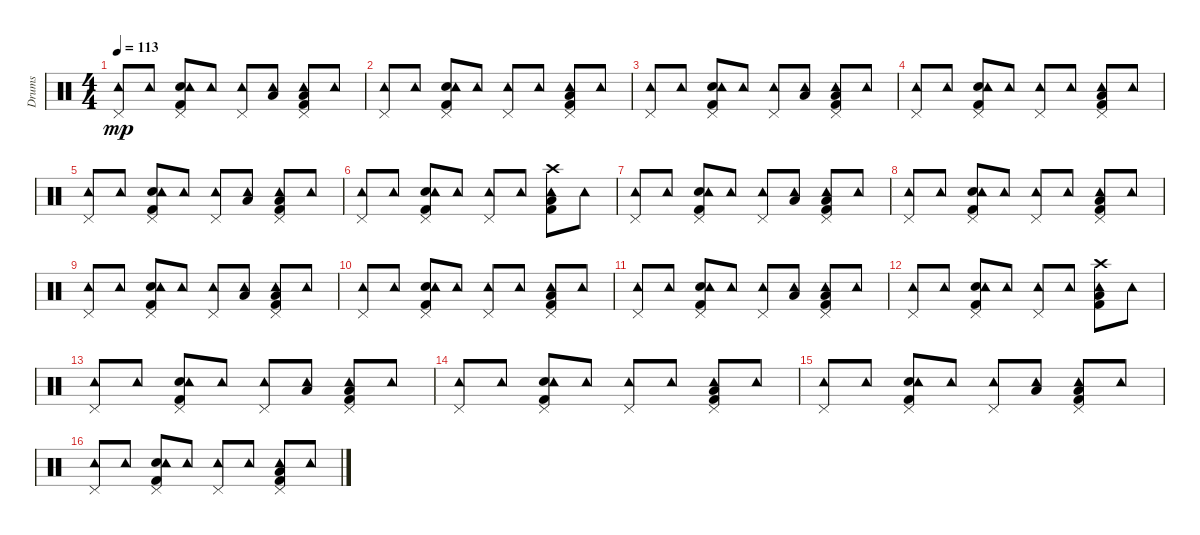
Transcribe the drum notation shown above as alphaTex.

\track ("Drums" "Drums") {instrument percussion}
\staff {score}
\articulation defaults
\ts (4 4)
\tempo 113
\clef neutral
\ks c
("Pedal Hi-Hat (hit)" "Tambourine (hit)").8{dy mp} "Tambourine (hit)".8 ("Pedal Hi-Hat (hit)" "Kick (hit) 2" "Electric Snare (hit)" "Tambourine (hit)").8 "Tambourine (hit)".8 ("Pedal Hi-Hat (hit)" "Tambourine (hit)").8 ("Low Floor Tom (hit)" "Tambourine (hit)").8 ("Pedal Hi-Hat (hit)" "Kick (hit) 2" "Low Floor Tom (hit)" "Tambourine (hit)").8 "Tambourine (hit)".8 |
("Pedal Hi-Hat (hit)" "Tambourine (hit)").8 "Tambourine (hit)".8 ("Pedal Hi-Hat (hit)" "Kick (hit) 2" "Electric Snare (hit)" "Tambourine (hit)").8 "Tambourine (hit)".8 ("Pedal Hi-Hat (hit)" "Tambourine (hit)").8 "Tambourine (hit)".8 ("Pedal Hi-Hat (hit)" "Kick (hit) 2" "Low Floor Tom (hit)" "Tambourine (hit)").8 "Tambourine (hit)".8 |
("Pedal Hi-Hat (hit)" "Tambourine (hit)").8 "Tambourine (hit)".8 ("Pedal Hi-Hat (hit)" "Kick (hit) 2" "Electric Snare (hit)" "Tambourine (hit)").8 "Tambourine (hit)".8 ("Pedal Hi-Hat (hit)" "Tambourine (hit)").8 ("Low Floor Tom (hit)" "Tambourine (hit)").8 ("Pedal Hi-Hat (hit)" "Kick (hit) 2" "Low Floor Tom (hit)" "Tambourine (hit)").8 "Tambourine (hit)".8 |
("Pedal Hi-Hat (hit)" "Tambourine (hit)").8 "Tambourine (hit)".8 ("Pedal Hi-Hat (hit)" "Kick (hit) 2" "Electric Snare (hit)" "Tambourine (hit)").8 "Tambourine (hit)".8 ("Pedal Hi-Hat (hit)" "Tambourine (hit)").8 "Tambourine (hit)".8 ("Pedal Hi-Hat (hit)" "Kick (hit) 2" "Low Floor Tom (hit)" "Tambourine (hit)").8 "Tambourine (hit)".8 |
("Pedal Hi-Hat (hit)" "Tambourine (hit)").8 "Tambourine (hit)".8 ("Pedal Hi-Hat (hit)" "Kick (hit) 2" "Electric Snare (hit)" "Tambourine (hit)").8 "Tambourine (hit)".8 ("Pedal Hi-Hat (hit)" "Tambourine (hit)").8 ("Low Floor Tom (hit)" "Tambourine (hit)").8 ("Pedal Hi-Hat (hit)" "Kick (hit) 2" "Low Floor Tom (hit)" "Tambourine (hit)").8 "Tambourine (hit)".8 |
("Pedal Hi-Hat (hit)" "Tambourine (hit)").8 "Tambourine (hit)".8 ("Pedal Hi-Hat (hit)" "Kick (hit) 2" "Electric Snare (hit)" "Tambourine (hit)").8 "Tambourine (hit)".8 ("Pedal Hi-Hat (hit)" "Tambourine (hit)").8 "Tambourine (hit)".8 ("Crash high (hit)" "Kick (hit) 2" "Low Floor Tom (hit)" "Tambourine (hit)").8 "Tambourine (hit)".8 |
("Pedal Hi-Hat (hit)" "Tambourine (hit)").8 "Tambourine (hit)".8 ("Pedal Hi-Hat (hit)" "Kick (hit) 2" "Electric Snare (hit)" "Tambourine (hit)").8 "Tambourine (hit)".8 ("Pedal Hi-Hat (hit)" "Tambourine (hit)").8 ("Low Floor Tom (hit)" "Tambourine (hit)").8 ("Pedal Hi-Hat (hit)" "Kick (hit) 2" "Low Floor Tom (hit)" "Tambourine (hit)").8 "Tambourine (hit)".8 |
("Pedal Hi-Hat (hit)" "Tambourine (hit)").8 "Tambourine (hit)".8 ("Pedal Hi-Hat (hit)" "Kick (hit) 2" "Electric Snare (hit)" "Tambourine (hit)").8 "Tambourine (hit)".8 ("Pedal Hi-Hat (hit)" "Tambourine (hit)").8 "Tambourine (hit)".8 ("Pedal Hi-Hat (hit)" "Kick (hit) 2" "Low Floor Tom (hit)" "Tambourine (hit)").8 "Tambourine (hit)".8 |
("Pedal Hi-Hat (hit)" "Tambourine (hit)").8 "Tambourine (hit)".8 ("Pedal Hi-Hat (hit)" "Kick (hit) 2" "Electric Snare (hit)" "Tambourine (hit)").8 "Tambourine (hit)".8 ("Pedal Hi-Hat (hit)" "Tambourine (hit)").8 ("Low Floor Tom (hit)" "Tambourine (hit)").8 ("Pedal Hi-Hat (hit)" "Kick (hit) 2" "Low Floor Tom (hit)" "Tambourine (hit)").8 "Tambourine (hit)".8 |
("Pedal Hi-Hat (hit)" "Tambourine (hit)").8 "Tambourine (hit)".8 ("Pedal Hi-Hat (hit)" "Kick (hit) 2" "Electric Snare (hit)" "Tambourine (hit)").8 "Tambourine (hit)".8 ("Pedal Hi-Hat (hit)" "Tambourine (hit)").8 "Tambourine (hit)".8 ("Pedal Hi-Hat (hit)" "Kick (hit) 2" "Low Floor Tom (hit)" "Tambourine (hit)").8 "Tambourine (hit)".8 |
("Pedal Hi-Hat (hit)" "Tambourine (hit)").8 "Tambourine (hit)".8 ("Pedal Hi-Hat (hit)" "Kick (hit) 2" "Electric Snare (hit)" "Tambourine (hit)").8 "Tambourine (hit)".8 ("Pedal Hi-Hat (hit)" "Tambourine (hit)").8 ("Low Floor Tom (hit)" "Tambourine (hit)").8 ("Pedal Hi-Hat (hit)" "Kick (hit) 2" "Low Floor Tom (hit)" "Tambourine (hit)").8 "Tambourine (hit)".8 |
("Pedal Hi-Hat (hit)" "Tambourine (hit)").8 "Tambourine (hit)".8 ("Pedal Hi-Hat (hit)" "Kick (hit) 2" "Electric Snare (hit)" "Tambourine (hit)").8 "Tambourine (hit)".8 ("Pedal Hi-Hat (hit)" "Tambourine (hit)").8 "Tambourine (hit)".8 ("Crash high (hit)" "Kick (hit) 2" "Low Floor Tom (hit)" "Tambourine (hit)").8 "Tambourine (hit)".8 |
("Pedal Hi-Hat (hit)" "Tambourine (hit)").8 "Tambourine (hit)".8 ("Pedal Hi-Hat (hit)" "Kick (hit) 2" "Electric Snare (hit)" "Tambourine (hit)").8 "Tambourine (hit)".8 ("Pedal Hi-Hat (hit)" "Tambourine (hit)").8 ("Low Floor Tom (hit)" "Tambourine (hit)").8 ("Pedal Hi-Hat (hit)" "Kick (hit) 2" "Low Floor Tom (hit)" "Tambourine (hit)").8 "Tambourine (hit)".8 |
("Pedal Hi-Hat (hit)" "Tambourine (hit)").8 "Tambourine (hit)".8 ("Pedal Hi-Hat (hit)" "Kick (hit) 2" "Electric Snare (hit)" "Tambourine (hit)").8 "Tambourine (hit)".8 ("Pedal Hi-Hat (hit)" "Tambourine (hit)").8 "Tambourine (hit)".8 ("Pedal Hi-Hat (hit)" "Kick (hit) 2" "Low Floor Tom (hit)" "Tambourine (hit)").8 "Tambourine (hit)".8 |
("Pedal Hi-Hat (hit)" "Tambourine (hit)").8 "Tambourine (hit)".8 ("Pedal Hi-Hat (hit)" "Kick (hit) 2" "Electric Snare (hit)" "Tambourine (hit)").8 "Tambourine (hit)".8 ("Pedal Hi-Hat (hit)" "Tambourine (hit)").8 ("Low Floor Tom (hit)" "Tambourine (hit)").8 ("Pedal Hi-Hat (hit)" "Kick (hit) 2" "Low Floor Tom (hit)" "Tambourine (hit)").8 "Tambourine (hit)".8 |
("Pedal Hi-Hat (hit)" "Tambourine (hit)").8 "Tambourine (hit)".8 ("Pedal Hi-Hat (hit)" "Kick (hit) 2" "Electric Snare (hit)" "Tambourine (hit)").8 "Tambourine (hit)".8 ("Pedal Hi-Hat (hit)" "Tambourine (hit)").8 "Tambourine (hit)".8 ("Pedal Hi-Hat (hit)" "Kick (hit) 2" "Low Floor Tom (hit)" "Tambourine (hit)").8 "Tambourine (hit)".8
